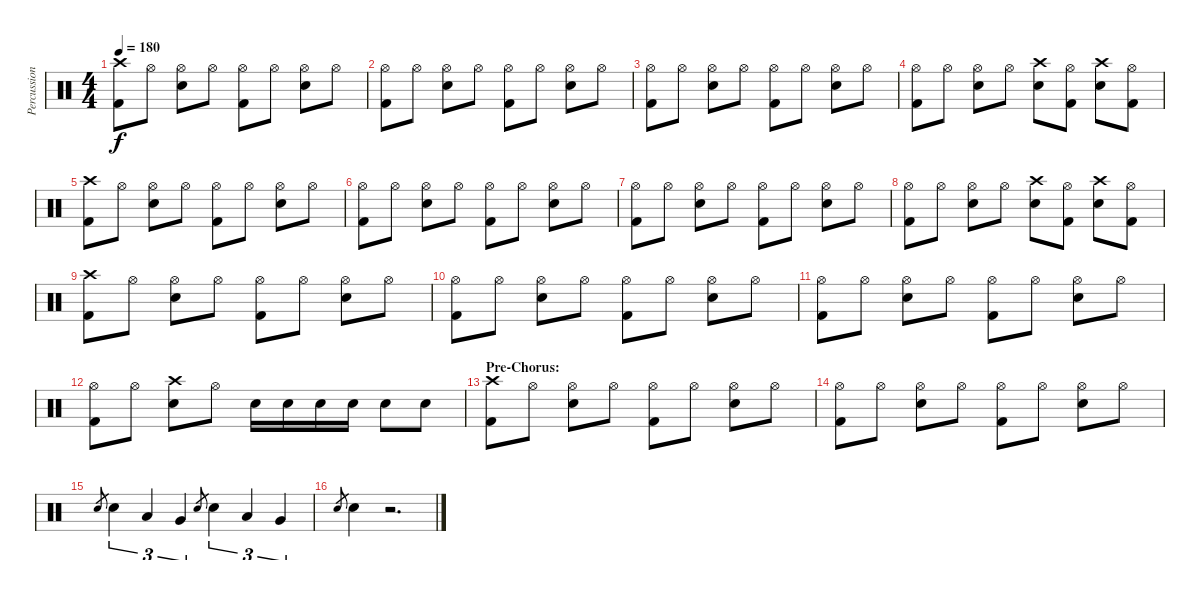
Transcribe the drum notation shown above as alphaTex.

\track ("Percussion" "Percussion") {instrument percussion}
\staff {score}
\articulation defaults
\ts (4 4)
\tempo 180
\clef neutral
\ks c
("Crash high (hit)" "Kick (hit) 2").8{dy f} "Hi-Hat (open)".8 ("Hi-Hat (open)" "Snare (hit) 2").8 "Hi-Hat (open)".8 ("Hi-Hat (open)" "Kick (hit) 2").8 "Hi-Hat (open)".8 ("Hi-Hat (open)" "Snare (hit) 2").8 "Hi-Hat (open)".8 |
("Hi-Hat (open)" "Kick (hit) 2").8 "Hi-Hat (open)".8 ("Hi-Hat (open)" "Snare (hit) 2").8 "Hi-Hat (open)".8 ("Hi-Hat (open)" "Kick (hit) 2").8 "Hi-Hat (open)".8 ("Hi-Hat (open)" "Snare (hit) 2").8 "Hi-Hat (open)".8 |
("Hi-Hat (open)" "Kick (hit) 2").8 "Hi-Hat (open)".8 ("Hi-Hat (open)" "Snare (hit) 2").8 "Hi-Hat (open)".8 ("Hi-Hat (open)" "Kick (hit) 2").8 "Hi-Hat (open)".8 ("Hi-Hat (open)" "Snare (hit) 2").8 "Hi-Hat (open)".8 |
("Hi-Hat (open)" "Kick (hit) 2").8 "Hi-Hat (open)".8 ("Hi-Hat (open)" "Snare (hit) 2").8 "Hi-Hat (open)".8 ("Crash high (hit)" "Snare (hit) 2").8 ("Hi-Hat (open)" "Kick (hit) 2").8 ("Crash high (hit)" "Snare (hit) 2").8 ("Hi-Hat (open)" "Kick (hit) 2").8 |
("Crash high (hit)" "Kick (hit) 2").8 "Hi-Hat (open)".8 ("Hi-Hat (open)" "Snare (hit) 2").8 "Hi-Hat (open)".8 ("Hi-Hat (open)" "Kick (hit) 2").8 "Hi-Hat (open)".8 ("Hi-Hat (open)" "Snare (hit) 2").8 "Hi-Hat (open)".8 |
("Hi-Hat (open)" "Kick (hit) 2").8 "Hi-Hat (open)".8 ("Hi-Hat (open)" "Snare (hit) 2").8 "Hi-Hat (open)".8 ("Hi-Hat (open)" "Kick (hit) 2").8 "Hi-Hat (open)".8 ("Hi-Hat (open)" "Snare (hit) 2").8 "Hi-Hat (open)".8 |
("Hi-Hat (open)" "Kick (hit) 2").8 "Hi-Hat (open)".8 ("Hi-Hat (open)" "Snare (hit) 2").8 "Hi-Hat (open)".8 ("Hi-Hat (open)" "Kick (hit) 2").8 "Hi-Hat (open)".8 ("Hi-Hat (open)" "Snare (hit) 2").8 "Hi-Hat (open)".8 |
("Hi-Hat (open)" "Kick (hit) 2").8 "Hi-Hat (open)".8 ("Hi-Hat (open)" "Snare (hit) 2").8 "Hi-Hat (open)".8 ("Crash high (hit)" "Snare (hit) 2").8 ("Hi-Hat (open)" "Kick (hit) 2").8 ("Crash high (hit)" "Snare (hit) 2").8 ("Hi-Hat (open)" "Kick (hit) 2").8 |
("Crash high (hit)" "Kick (hit) 2").8 "Hi-Hat (open)".8 ("Hi-Hat (open)" "Snare (hit) 2").8 "Hi-Hat (open)".8 ("Hi-Hat (open)" "Kick (hit) 2").8 "Hi-Hat (open)".8 ("Hi-Hat (open)" "Snare (hit) 2").8 "Hi-Hat (open)".8 |
("Hi-Hat (open)" "Kick (hit) 2").8 "Hi-Hat (open)".8 ("Hi-Hat (open)" "Snare (hit) 2").8 "Hi-Hat (open)".8 ("Hi-Hat (open)" "Kick (hit) 2").8 "Hi-Hat (open)".8 ("Hi-Hat (open)" "Snare (hit) 2").8 "Hi-Hat (open)".8 |
("Hi-Hat (open)" "Kick (hit) 2").8 "Hi-Hat (open)".8 ("Hi-Hat (open)" "Snare (hit) 2").8 "Hi-Hat (open)".8 ("Hi-Hat (open)" "Kick (hit) 2").8 "Hi-Hat (open)".8 ("Hi-Hat (open)" "Snare (hit) 2").8 "Hi-Hat (open)".8 |
("Hi-Hat (open)" "Kick (hit) 2").8 "Hi-Hat (open)".8 ("Crash high (hit)" "Snare (hit) 2").8 "Hi-Hat (open)".8 "Snare (hit) 2".16 "Snare (hit) 2".16 "Snare (hit) 2".16 "Snare (hit) 2".16 "Snare (hit) 2".8 "Snare (hit) 2".8 |
\section ("" "Pre-Chorus:")
("Crash high (hit)" "Kick (hit) 2").8 "Hi-Hat (open)".8 ("Hi-Hat (open)" "Snare (hit) 2").8 "Hi-Hat (open)".8 ("Hi-Hat (open)" "Kick (hit) 2").8 "Hi-Hat (open)".8 ("Hi-Hat (open)" "Snare (hit) 2").8 "Hi-Hat (open)".8 |
("Hi-Hat (open)" "Kick (hit) 2").8 "Hi-Hat (open)".8 ("Hi-Hat (open)" "Snare (hit) 2").8 "Hi-Hat (open)".8 ("Hi-Hat (open)" "Kick (hit) 2").8 "Hi-Hat (open)".8 ("Hi-Hat (open)" "Snare (hit) 2").8 "Hi-Hat (open)".8 |
"Snare (hit) 2".8{gr} "Snare (hit) 2".4{tu (3 2)} "Low Tom (hit)".4{tu (3 2)} "Very Low Tom (hit)".4{tu (3 2)} "Snare (hit) 2".8{gr} "Snare (hit) 2".4{tu (3 2)} "Low Tom (hit)".4{tu (3 2)} "Very Low Tom (hit)".4{tu (3 2)} |
"Snare (hit) 2".8{gr} "Snare (hit) 2".4 r.2{d}
